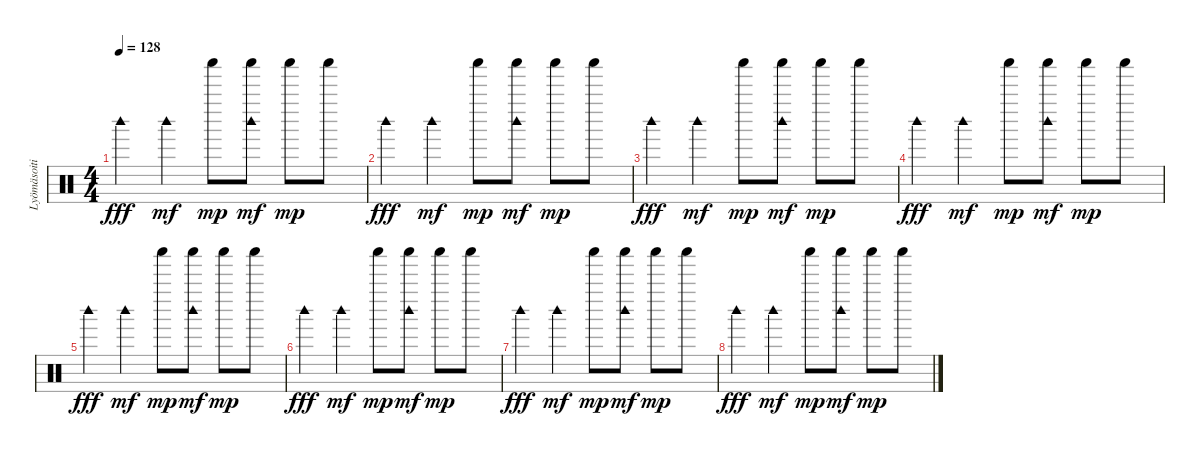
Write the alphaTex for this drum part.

\track ("Lyömäsoitin" "Lyömäsoiti") {instrument percussion}
\staff {score}
\articulation defaults
\ts (4 4)
\tempo 128
\clef neutral
\ks c "Woodblock high (hit)".4{dy fff} "Woodblock high (hit)".4{dy mf} "Shaker (hit)".8{dy mp}
("Shaker (hit)" "Woodblock high (hit)").8{dy mf} "Shaker (hit)".8{dy mp} "Shaker (hit)".8 |
"Woodblock high (hit)".4{dy fff} "Woodblock high (hit)".4{dy mf} "Shaker (hit)".8{dy mp} ("Shaker (hit)" "Woodblock high (hit)").8{dy mf} "Shaker (hit)".8{dy mp} "Shaker (hit)".8 |
"Woodblock high (hit)".4{dy fff} "Woodblock high (hit)".4{dy mf} "Shaker (hit)".8{dy mp} ("Shaker (hit)" "Woodblock high (hit)").8{dy mf} "Shaker (hit)".8{dy mp} "Shaker (hit)".8 |
"Woodblock high (hit)".4{dy fff} "Woodblock high (hit)".4{dy mf} "Shaker (hit)".8{dy mp} ("Shaker (hit)" "Woodblock high (hit)").8{dy mf} "Shaker (hit)".8{dy mp} "Shaker (hit)".8 |
"Woodblock high (hit)".4{dy fff} "Woodblock high (hit)".4{dy mf} "Shaker (hit)".8{dy mp} ("Shaker (hit)" "Woodblock high (hit)").8{dy mf} "Shaker (hit)".8{dy mp} "Shaker (hit)".8 |
"Woodblock high (hit)".4{dy fff} "Woodblock high (hit)".4{dy mf} "Shaker (hit)".8{dy mp} ("Shaker (hit)" "Woodblock high (hit)").8{dy mf} "Shaker (hit)".8{dy mp} "Shaker (hit)".8 |
"Woodblock high (hit)".4{dy fff} "Woodblock high (hit)".4{dy mf} "Shaker (hit)".8{dy mp} ("Shaker (hit)" "Woodblock high (hit)").8{dy mf} "Shaker (hit)".8{dy mp} "Shaker (hit)".8 |
"Woodblock high (hit)".4{dy fff} "Woodblock high (hit)".4{dy mf} "Shaker (hit)".8{dy mp} ("Shaker (hit)" "Woodblock high (hit)").8{dy mf} "Shaker (hit)".8{dy mp} "Shaker (hit)".8
